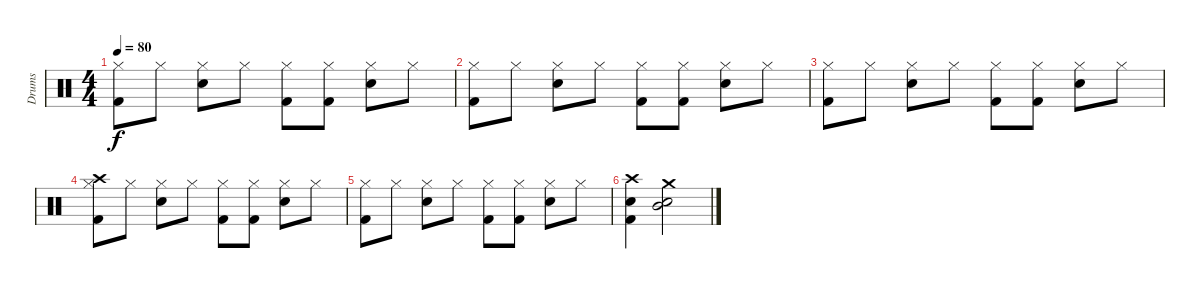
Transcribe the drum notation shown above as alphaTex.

\track ("Drums" "Drums") {instrument percussion}
\staff {score}
\articulation defaults
\ts (4 4)
\tempo 80
\clef neutral
\ks c
("Hi-Hat (closed)" "Kick (hit) 2").8{dy f} "Hi-Hat (closed)".8 ("Hi-Hat (closed)" "Snare (hit) 2").8 "Hi-Hat (closed)".8 ("Hi-Hat (closed)" "Kick (hit) 2").8 ("Hi-Hat (closed)" "Kick (hit) 2").8 ("Hi-Hat (closed)" "Snare (hit) 2").8 "Hi-Hat (closed)".8 |
("Hi-Hat (closed)" "Kick (hit) 2").8 "Hi-Hat (closed)".8 ("Hi-Hat (closed)" "Snare (hit) 2").8 "Hi-Hat (closed)".8 ("Hi-Hat (closed)" "Kick (hit) 2").8 ("Hi-Hat (closed)" "Kick (hit) 2").8 ("Hi-Hat (closed)" "Snare (hit) 2").8 "Hi-Hat (closed)".8 |
("Hi-Hat (closed)" "Kick (hit) 2").8 "Hi-Hat (closed)".8 ("Hi-Hat (closed)" "Snare (hit) 2").8 "Hi-Hat (closed)".8 ("Hi-Hat (closed)" "Kick (hit) 2").8 ("Hi-Hat (closed)" "Kick (hit) 2").8 ("Hi-Hat (closed)" "Snare (hit) 2").8 "Hi-Hat (closed)".8 |
("Hi-Hat (closed)" "Crash high (hit)" "Kick (hit) 2").8 "Hi-Hat (closed)".8 ("Hi-Hat (closed)" "Snare (hit) 2").8 "Hi-Hat (closed)".8 ("Hi-Hat (closed)" "Kick (hit) 2").8 ("Hi-Hat (closed)" "Kick (hit) 2").8 ("Hi-Hat (closed)" "Snare (hit) 2").8 "Hi-Hat (closed)".8 |
("Hi-Hat (closed)" "Kick (hit) 2").8 "Hi-Hat (closed)".8 ("Hi-Hat (closed)" "Snare (hit) 2").8 "Hi-Hat (closed)".8 ("Hi-Hat (closed)" "Kick (hit) 2").8 ("Hi-Hat (closed)" "Kick (hit) 2").8 ("Hi-Hat (closed)" "Snare (hit) 2").8 "Hi-Hat (closed)".8 |
("Crash high (hit)" "Kick (hit) 2" "Snare (hit) 2").4 ("Crash medium (hit)" "Snare (hit) 2" "Mid Tom (hit)").2
